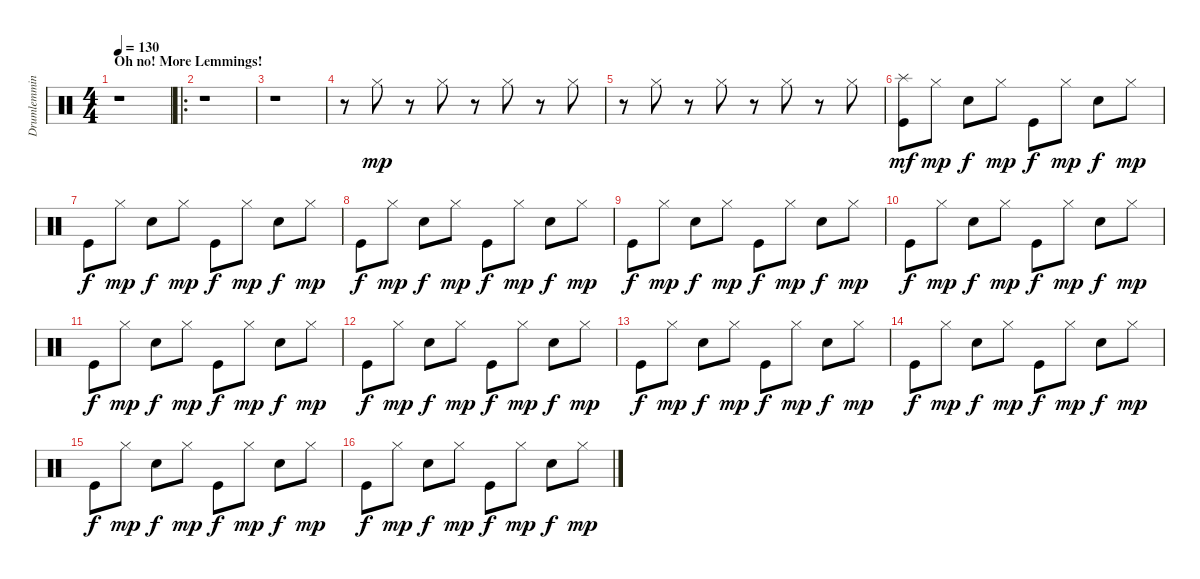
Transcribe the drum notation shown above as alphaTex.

\track ("Drumlemming" "Drumlemmin") {instrument percussion}
\staff {score}
\articulation defaults
\ts (4 4)
\section ("" "Oh no! More Lemmings!")
\tempo 130
\clef neutral
\ks c
r.1{dy mp} |
\ro
r.1 |
r.1 |
r.8 "Hi-Hat (closed)".8 r.8 "Hi-Hat (closed)".8 r.8 "Hi-Hat (closed)".8 r.8 "Hi-Hat (closed)".8 |
r.8 "Hi-Hat (closed)".8 r.8 "Hi-Hat (closed)".8 r.8 "Hi-Hat (closed)".8 r.8 "Hi-Hat (closed)".8 |
("Splash (hit)" "Kick (hit)").8{dy mf} "Hi-Hat (closed)".8{dy mp} "Electric Snare (hit)".8{dy f} "Hi-Hat (closed)".8{dy mp} "Kick (hit)".8{dy f} "Hi-Hat (closed)".8{dy mp} "Electric Snare (hit)".8{dy f} "Hi-Hat (closed)".8{dy mp} |
"Kick (hit)".8{dy f} "Hi-Hat (closed)".8{dy mp} "Electric Snare (hit)".8{dy f} "Hi-Hat (closed)".8{dy mp} "Kick (hit)".8{dy f} "Hi-Hat (closed)".8{dy mp} "Electric Snare (hit)".8{dy f} "Hi-Hat (closed)".8{dy mp} |
"Kick (hit)".8{dy f} "Hi-Hat (closed)".8{dy mp} "Electric Snare (hit)".8{dy f} "Hi-Hat (closed)".8{dy mp} "Kick (hit)".8{dy f} "Hi-Hat (closed)".8{dy mp} "Electric Snare (hit)".8{dy f} "Hi-Hat (closed)".8{dy mp} |
"Kick (hit)".8{dy f} "Hi-Hat (closed)".8{dy mp} "Electric Snare (hit)".8{dy f} "Hi-Hat (closed)".8{dy mp} "Kick (hit)".8{dy f} "Hi-Hat (closed)".8{dy mp} "Electric Snare (hit)".8{dy f} "Hi-Hat (closed)".8{dy mp} |
"Kick (hit)".8{dy f} "Hi-Hat (closed)".8{dy mp} "Electric Snare (hit)".8{dy f} "Hi-Hat (closed)".8{dy mp} "Kick (hit)".8{dy f} "Hi-Hat (closed)".8{dy mp} "Electric Snare (hit)".8{dy f} "Hi-Hat (closed)".8{dy mp} |
"Kick (hit)".8{dy f} "Hi-Hat (closed)".8{dy mp} "Electric Snare (hit)".8{dy f} "Hi-Hat (closed)".8{dy mp} "Kick (hit)".8{dy f} "Hi-Hat (closed)".8{dy mp} "Electric Snare (hit)".8{dy f} "Hi-Hat (closed)".8{dy mp} |
"Kick (hit)".8{dy f} "Hi-Hat (closed)".8{dy mp} "Electric Snare (hit)".8{dy f} "Hi-Hat (closed)".8{dy mp} "Kick (hit)".8{dy f} "Hi-Hat (closed)".8{dy mp} "Electric Snare (hit)".8{dy f} "Hi-Hat (closed)".8{dy mp} |
"Kick (hit)".8{dy f} "Hi-Hat (closed)".8{dy mp} "Electric Snare (hit)".8{dy f} "Hi-Hat (closed)".8{dy mp} "Kick (hit)".8{dy f} "Hi-Hat (closed)".8{dy mp} "Electric Snare (hit)".8{dy f} "Hi-Hat (closed)".8{dy mp} |
"Kick (hit)".8{dy f} "Hi-Hat (closed)".8{dy mp} "Electric Snare (hit)".8{dy f} "Hi-Hat (closed)".8{dy mp} "Kick (hit)".8{dy f} "Hi-Hat (closed)".8{dy mp} "Electric Snare (hit)".8{dy f} "Hi-Hat (closed)".8{dy mp} |
"Kick (hit)".8{dy f} "Hi-Hat (closed)".8{dy mp} "Electric Snare (hit)".8{dy f} "Hi-Hat (closed)".8{dy mp} "Kick (hit)".8{dy f} "Hi-Hat (closed)".8{dy mp} "Electric Snare (hit)".8{dy f} "Hi-Hat (closed)".8{dy mp} |
"Kick (hit)".8{dy f} "Hi-Hat (closed)".8{dy mp} "Electric Snare (hit)".8{dy f} "Hi-Hat (closed)".8{dy mp} "Kick (hit)".8{dy f} "Hi-Hat (closed)".8{dy mp} "Electric Snare (hit)".8{dy f} "Hi-Hat (closed)".8{dy mp}
